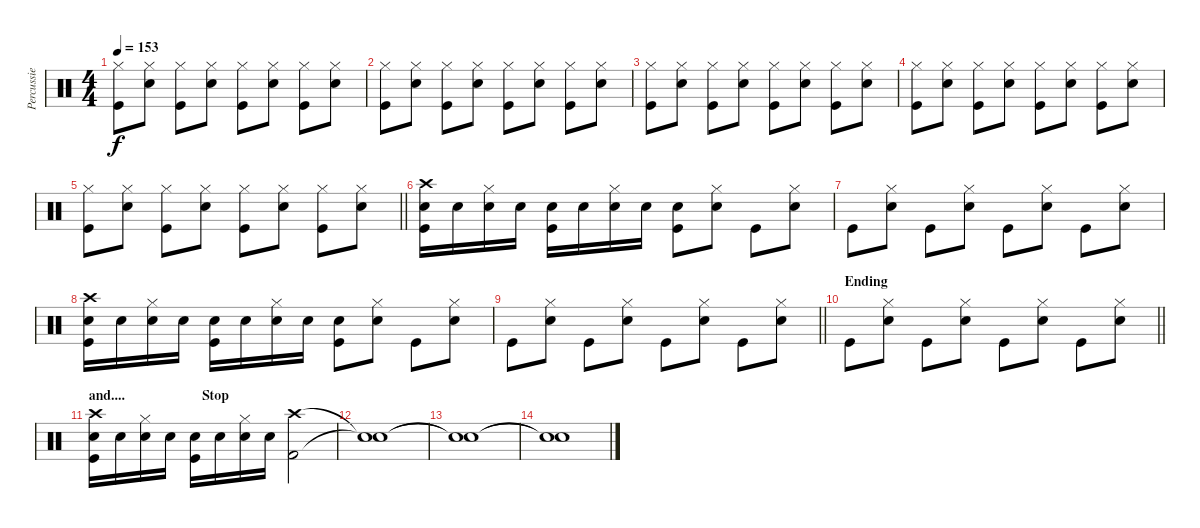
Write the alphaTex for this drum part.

\track ("Percussie George Schwindt" "Percussie ") {instrument percussion}
\staff {score}
\articulation defaults
\ts (4 4)
\tempo 153
\clef neutral
\ks c
("Hi-Hat (closed)" "Kick (hit)").8{dy f} ("Electric Snare (hit)" "Hi-Hat (closed)").8 ("Hi-Hat (closed)" "Kick (hit)").8 ("Electric Snare (hit)" "Hi-Hat (closed)").8 ("Hi-Hat (closed)" "Kick (hit)").8 ("Electric Snare (hit)" "Hi-Hat (closed)").8 ("Hi-Hat (closed)" "Kick (hit)").8 ("Electric Snare (hit)" "Hi-Hat (closed)").8 |
("Hi-Hat (closed)" "Kick (hit)").8 ("Electric Snare (hit)" "Hi-Hat (closed)").8 ("Hi-Hat (closed)" "Kick (hit)").8 ("Electric Snare (hit)" "Hi-Hat (closed)").8 ("Hi-Hat (closed)" "Kick (hit)").8 ("Electric Snare (hit)" "Hi-Hat (closed)").8 ("Hi-Hat (closed)" "Kick (hit)").8 ("Electric Snare (hit)" "Hi-Hat (closed)").8 |
("Hi-Hat (closed)" "Kick (hit)").8 ("Electric Snare (hit)" "Hi-Hat (closed)").8 ("Hi-Hat (closed)" "Kick (hit)").8 ("Electric Snare (hit)" "Hi-Hat (closed)").8 ("Hi-Hat (closed)" "Kick (hit)").8 ("Electric Snare (hit)" "Hi-Hat (closed)").8 ("Hi-Hat (closed)" "Kick (hit)").8 ("Electric Snare (hit)" "Hi-Hat (closed)").8 |
("Hi-Hat (closed)" "Kick (hit)").8 ("Electric Snare (hit)" "Hi-Hat (closed)").8 ("Hi-Hat (closed)" "Kick (hit)").8 ("Electric Snare (hit)" "Hi-Hat (closed)").8 ("Hi-Hat (closed)" "Kick (hit)").8 ("Electric Snare (hit)" "Hi-Hat (closed)").8 ("Hi-Hat (closed)" "Kick (hit)").8 ("Electric Snare (hit)" "Hi-Hat (closed)").8 |
\barLineRight lightlight
("Hi-Hat (closed)" "Kick (hit)").8 ("Electric Snare (hit)" "Hi-Hat (closed)").8 ("Hi-Hat (closed)" "Kick (hit)").8 ("Electric Snare (hit)" "Hi-Hat (closed)").8 ("Hi-Hat (closed)" "Kick (hit)").8 ("Electric Snare (hit)" "Hi-Hat (closed)").8 ("Hi-Hat (closed)" "Kick (hit)").8 ("Electric Snare (hit)" "Hi-Hat (closed)").8 |
("Crash high (hit)" "Electric Snare (hit)" "Kick (hit)").16 "Electric Snare (hit)".16 ("Electric Snare (hit)" "Hi-Hat (closed)").16 "Electric Snare (hit)".16 ("Electric Snare (hit)" "Kick (hit)").16 "Electric Snare (hit)".16 ("Electric Snare (hit)" "Hi-Hat (closed)").16 "Electric Snare (hit)".16 ("Electric Snare (hit)" "Kick (hit)").8 ("Electric Snare (hit)" "Hi-Hat (closed)").8 "Kick (hit)".8 ("Electric Snare (hit)" "Hi-Hat (closed)").8 |
"Kick (hit)".8 ("Electric Snare (hit)" "Hi-Hat (closed)").8 "Kick (hit)".8 ("Electric Snare (hit)" "Hi-Hat (closed)").8 "Kick (hit)".8 ("Electric Snare (hit)" "Hi-Hat (closed)").8 "Kick (hit)".8 ("Electric Snare (hit)" "Hi-Hat (closed)").8 |
("Crash high (hit)" "Electric Snare (hit)" "Kick (hit)").16 "Electric Snare (hit)".16 ("Electric Snare (hit)" "Hi-Hat (closed)").16 "Electric Snare (hit)".16 ("Electric Snare (hit)" "Kick (hit)").16 "Electric Snare (hit)".16 ("Electric Snare (hit)" "Hi-Hat (closed)").16 "Electric Snare (hit)".16 ("Electric Snare (hit)" "Kick (hit)").8 ("Electric Snare (hit)" "Hi-Hat (closed)").8 "Kick (hit)".8 ("Electric Snare (hit)" "Hi-Hat (closed)").8 |
\barLineRight lightlight "Kick (hit)".8
("Electric Snare (hit)" "Hi-Hat (closed)").8 "Kick (hit)".8 ("Electric Snare (hit)" "Hi-Hat (closed)").8 "Kick (hit)".8 ("Electric Snare (hit)" "Hi-Hat (closed)").8 "Kick (hit)".8 ("Electric Snare (hit)" "Hi-Hat (closed)").8 |
\section ("" "Ending")
\barLineRight lightlight "Kick (hit)".8
("Electric Snare (hit)" "Hi-Hat (closed)").8 "Kick (hit)".8 ("Electric Snare (hit)" "Hi-Hat (closed)").8 "Kick (hit)".8 ("Electric Snare (hit)" "Hi-Hat (closed)").8 "Kick (hit)".8 ("Electric Snare (hit)" "Hi-Hat (closed)").8 |
\section ("" "and....                      Stop")
("Crash high (hit)" "Electric Snare (hit)" "Kick (hit)").16 "Electric Snare (hit)".16 ("Electric Snare (hit)" "Hi-Hat (closed)").16 "Electric Snare (hit)".16 ("Electric Snare (hit)" "Kick (hit)").16 "Electric Snare (hit)".16 ("Electric Snare (hit)" "Hi-Hat (closed)").16 "Electric Snare (hit)".16 ("Crash high (hit)" "Kick (hit) 2").2 |
("Snare (hit)"{t} "Snare (hit)"{t}).1 |
("Snare (hit)"{t} "Snare (hit)"{t}).1 |
("Snare (hit)"{t} "Snare (hit)"{t}).1
